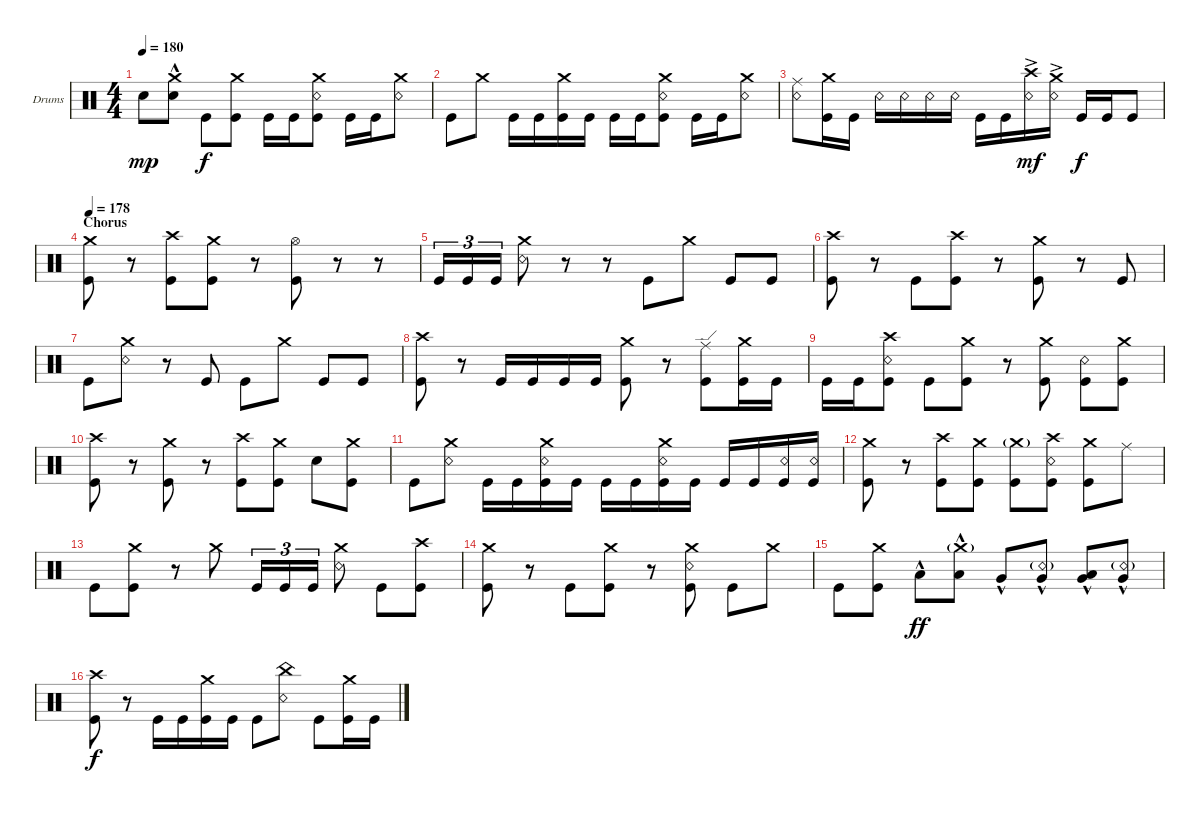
\bracketExtendMode groupsimilarinstruments
\firstSystemTrackNameOrientation horizontal
\otherSystemsTrackNameOrientation horizontal
\track ("Drumkit" "Drums") {instrument percussion}
\staff {score}
\articulation defaults
\ts (4 4)
\tempo 180
\clef neutral
\ks c "Snare (hit) 2".8{dy mp}
("Crash medium (hit)"{hac} "Snare (hit) 2").8 "Kick (hit)".8{dy f} ("Kick (hit)" "Crash medium (hit)").8 "Kick (hit)".16 "Kick (hit)".16 ("Kick (hit)" "Snare (rim shot)" "Crash medium (hit)").8 "Kick (hit)".16 "Kick (hit)".16 ("Crash medium (hit)" "Snare (rim shot)").8 |
"Kick (hit)".8 "Crash medium (hit)".8 "Kick (hit)".16 "Kick (hit)".16 ("Kick (hit)" "Crash medium (hit)").16 "Kick (hit)".16 "Kick (hit)".16 "Kick (hit)".16 ("Kick (hit)" "Snare (rim shot)" "Crash medium (hit)").8 "Kick (hit)".16 "Kick (hit)".16 ("Snare (rim shot)" "Crash medium (hit)").8 |
("Snare (rim shot)" "Ride (middle)").8 ("Kick (hit)" "Crash medium (hit)").16 "Kick (hit)".16 "Snare (rim shot)".16 "Snare (rim shot)".16 "Snare (rim shot)".16 "Snare (rim shot)".16 "Kick (hit)".16 "Kick (hit)".16 ("Snare (rim shot)" "Crash high (hit)"{ac}).16{dy mf} ("Snare (rim shot)" "Crash medium (hit)"{ac}).16 "Kick (hit)".16{dy f} "Kick (hit)".16 "Kick (hit)".8 |
\section ("" "Chorus")
\tempo 178
("Kick (hit)" "Crash medium (hit)").8 r.8 ("Kick (hit)" "Crash high (hit)").8 ("Kick (hit)" "Crash medium (hit)").8 r.8 ("Kick (hit)" "Hi-Hat (open)").8 r.8 r.8 |
"Kick (hit)".16{tu (3 2)} "Kick (hit)".16{tu (3 2)} "Kick (hit)".16{tu (3 2)} ("Snare (rim shot)" "Crash medium (hit)").8 r.8 r.8 "Kick (hit)".8 "Crash medium (hit)".8 "Kick (hit)".8 "Kick (hit)".8 |
("Kick (hit)" "Crash high (hit)").8 r.8 "Kick (hit)".8 ("Kick (hit)" "Crash high (hit)").8 r.8 ("Kick (hit)" "Crash medium (hit)").8 r.8 "Kick (hit)".8 |
"Kick (hit)".8 ("Snare (rim shot)" "Crash medium (hit)").8 r.8 "Kick (hit)".8 "Kick (hit)".8 "Crash medium (hit)".8 "Kick (hit)".8 "Kick (hit)".8 |
("Kick (hit)" "Crash high (hit)").8 r.8 "Kick (hit)".16 "Kick (hit)".16 "Kick (hit)".16 "Kick (hit)".16 ("Kick (hit)" "Crash medium (hit)").8 r.8 ("Kick (hit)" "Ride (edge)").8 ("Kick (hit)" "Crash medium (hit)").16 "Kick (hit)".16 |
"Kick (hit)".16 "Kick (hit)".16 ("Kick (hit)" "Snare (rim shot)" "Crash high (hit)").8 "Kick (hit)".8 ("Kick (hit)" "Crash medium (hit)").8 r.8 ("Kick (hit)" "Crash medium (hit)").8 ("Kick (hit)" "Snare (rim shot)").8 ("Kick (hit)" "Crash medium (hit)").8 |
("Kick (hit)" "Crash high (hit)").8 r.8 ("Kick (hit)" "Crash medium (hit)").8 r.8 ("Kick (hit)" "Crash high (hit)").8 ("Kick (hit)" "Crash medium (hit)").8 "Snare (hit) 2".8 ("Kick (hit)" "Crash medium (hit)").8 |
"Kick (hit)".8 ("Snare (rim shot)" "Crash medium (hit)").8 "Kick (hit)".16 "Kick (hit)".16 ("Kick (hit)" "Snare (rim shot)" "Crash medium (hit)").16 "Kick (hit)".16 "Kick (hit)".16 "Kick (hit)".16 ("Kick (hit)" "Snare (rim shot)" "Crash medium (hit)").16 "Kick (hit)".16 "Kick (hit)".16 "Kick (hit)".16 ("Kick (hit)" "Snare (rim shot)").16 ("Kick (hit)" "Snare (rim shot)").16 |
("Kick (hit)" "Crash medium (hit)").8 r.8 ("Kick (hit)" "Crash high (hit)").8 ("Kick (hit)" "Crash medium (hit)").8 ("Kick (hit)" "Crash medium (hit)"{g}).8 ("Kick (hit)" "Crash high (hit)" "Snare (rim shot)").8 ("Kick (hit)" "Crash medium (hit)").8 "Ride (middle)".8 |
"Kick (hit)".8 ("Crash medium (hit)" "Kick (hit)").8 r.8 "Crash medium (hit)".8 "Kick (hit)".16{tu (3 2)} "Kick (hit)".16{tu (3 2)} "Kick (hit)".16{tu (3 2)} ("Crash medium (hit)" "Snare (rim shot)").8 "Kick (hit)".8 ("Kick (hit)" "Crash high (hit)").8 |
("Kick (hit)" "Crash medium (hit)").8 r.8 "Kick (hit)".8 ("Kick (hit)" "Crash medium (hit)").8 r.8 ("Crash medium (hit)" "Snare (rim shot)" "Kick (hit)").8 "Kick (hit)".8 "Crash medium (hit)".8 |
"Kick (hit)".8 ("Crash medium (hit)" "Kick (hit)").8 "Low Tom (hit)"{hac}.8{dy ff} ("Low Tom (hit)"{hac} "Crash medium (hit)"{g}).8 "Very Low Tom (hit)"{hac}.8 ("Snare (rim shot)"{g} "Very Low Tom (hit)"{hac}).8 ("Very Low Tom (hit)"{hac} "Low Tom (hit)"{hac}).8 ("Snare (rim shot)"{g} "Very Low Tom (hit)"{hac}).8 |
("Kick (hit)" "Crash high (hit)").8{dy f} r.8 "Kick (hit)".16 "Kick (hit)".16 ("Kick (hit)" "Crash medium (hit)").16 "Kick (hit)".16 "Kick (hit)".8 ("Snare (rim shot)" "China (hit)").8 "Kick (hit)".8 ("Kick (hit)" "Crash medium (hit)").16 "Kick (hit)".16
